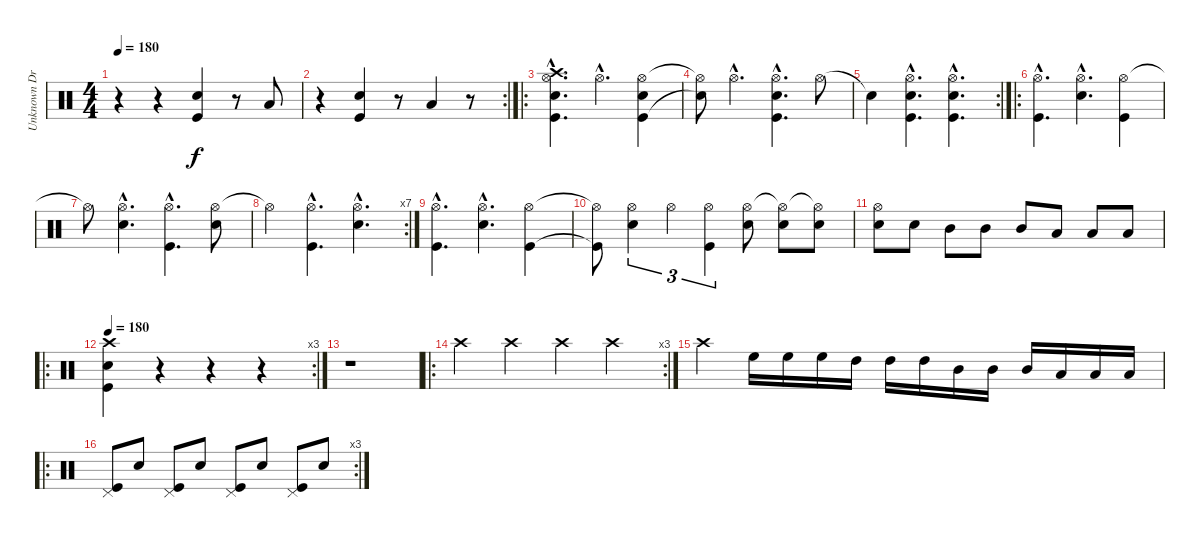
\track ("Unknown Drummer" "Unknown Dr") {instrument percussion}
\staff {score}
\articulation defaults
\ts (4 4)
\tempo 180
\clef neutral
\ks c
r.4{dy f} r.4 ("Snare (hit) 2" "Kick (hit)").4 r.8 "Low Floor Tom (hit)".8 |
\rc 2
r.4 ("Snare (hit) 2" "Kick (hit)").4 r.8 "Low Floor Tom (hit)".4 r.8 |
\ro
("Crash high (hit)"{hac} "Hi-Hat (open)"{hac} "Snare (hit) 2"{hac} "Kick (hit)"{hac}).4{d} "Hi-Hat (open)"{hac}.4{d} ("Hi-Hat (open)" "Kick (hit)" "Snare (hit) 2").4 |
("Hi-Hat (open)"{t} "Snare (hit)"{t}).8 "Hi-Hat (open)"{hac}.4{d} ("Hi-Hat (open)"{hac} "Kick (hit)"{hac} "Snare (hit) 2"{hac}).4{d} "Hi-Hat (open)".8 |
\rc 2 "Snare (hit)"{t}.4
("Hi-Hat (open)"{hac} "Snare (hit) 2"{hac} "Kick (hit)"{hac}).4{d} ("Hi-Hat (open)"{hac} "Snare (hit) 2"{hac} "Kick (hit)"{hac}).4{d} |
\ro
("Hi-Hat (open)"{hac} "Kick (hit)"{hac}).4{d} ("Hi-Hat (open)"{hac} "Snare (hit) 2"{hac}).4{d} ("Hi-Hat (open)" "Kick (hit)").4 |
"Hi-Hat (open)"{t}.8 ("Hi-Hat (open)"{hac} "Snare (hit) 2"{hac}).4{d} ("Hi-Hat (open)"{hac} "Kick (hit)"{hac}).4{d} ("Hi-Hat (open)" "Snare (hit) 2").8 |
\rc 7 "Hi-Hat (open)"{t}.4
("Hi-Hat (open)"{hac} "Kick (hit)"{hac}).4{d} ("Hi-Hat (open)"{hac} "Snare (hit) 2"{hac}).4{d} |
("Hi-Hat (open)"{hac} "Kick (hit)"{hac}).4{d} ("Hi-Hat (open)"{hac} "Snare (hit) 2"{hac}).4{d} ("Hi-Hat (open)" "Kick (hit)").4 |
("Hi-Hat (open)"{t} "Kick (hit)"{t}).8 ("Hi-Hat (open)" "Snare (hit) 2").4{tu (3 2)} "Hi-Hat (open)".4{tu (3 2)} ("Hi-Hat (open)" "Kick (hit)").4{tu (3 2)} ("Hi-Hat (open)" "Snare (hit) 2").8 ("Hi-Hat (open)"{t} "Snare (hit) 2").8 ("Hi-Hat (open)"{t} "Snare (hit) 2").8 |
("Hi-Hat (open)" "Snare (hit) 2").8 "Snare (hit) 2".8 "Mid Tom (hit)".8 "Mid Tom (hit)".8 "Mid Tom (hit)".8 "Low Tom (hit)".8 "Low Tom (hit)".8 "Low Tom (hit)".8 |
\ro
\rc 3
\tempo 180
("Crash high (hit)" "Snare (hit) 2" "Kick (hit)").4 r.4 r.4 r.4 |
r.1 |
\ro
\rc 3 "Crash high (hit)".4 "Crash high (hit)".4 "Crash high (hit)".4 "Crash high (hit)".4
|
"Crash high (hit)".4 "High Floor Tom (hit)".16 "High Floor Tom (hit)".16 "High Floor Tom (hit)".16 "High Tom (hit)".16 "High Tom (hit)".16 "High Tom (hit)".16 "Mid Tom (hit)".16 "Mid Tom (hit)".16 "Mid Tom (hit)".16 "Low Tom (hit)".16 "Low Tom (hit)".16 "Low Tom (hit)".16 |
\ro
\rc 3
("Pedal Hi-Hat (hit)" "Kick (hit)").8 "Snare (hit) 2".8 ("Pedal Hi-Hat (hit)" "Kick (hit)").8 "Snare (hit) 2".8 ("Pedal Hi-Hat (hit)" "Kick (hit)").8 "Snare (hit) 2".8 ("Pedal Hi-Hat (hit)" "Kick (hit)").8 "Snare (hit) 2".8
